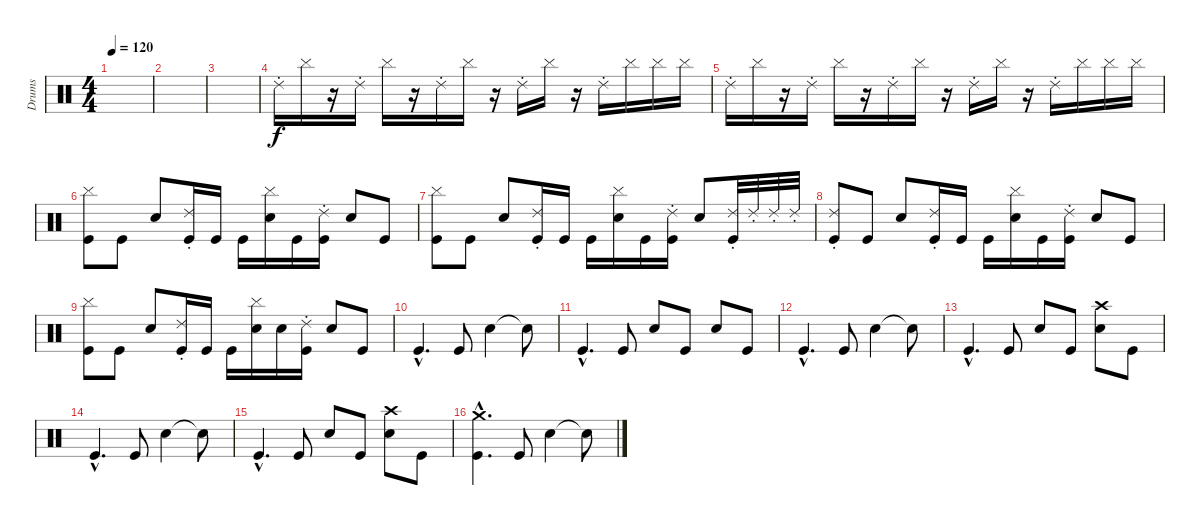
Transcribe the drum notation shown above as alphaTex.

\track ("Drums" "Drums") {instrument percussion}
\staff {score}
\articulation defaults
\ts (4 4)
\tempo 120
\clef neutral
\ks c
|
|
|
"Ride (choke) 2".16 "Cymbal (hit)".16 r.16 "Ride (choke) 2".16 "Cymbal (hit)".16 r.16 "Ride (choke) 2".16 "Cymbal (hit)".16 r.16 "Ride (choke) 2".16 "Cymbal (hit)".16 r.16 "Ride (choke) 2".16 "Cymbal (hit)".16 "Cymbal (hit)".16 "Cymbal (hit)".16 |
"Ride (choke) 2".16 "Cymbal (hit)".16 r.16 "Ride (choke) 2".16 "Cymbal (hit)".16 r.16 "Ride (choke) 2".16 "Cymbal (hit)".16 r.16 "Ride (choke) 2".16 "Cymbal (hit)".16 r.16 "Ride (choke) 2".16 "Cymbal (hit)".16 "Cymbal (hit)".16 "Cymbal (hit)".16 |
("Kick (hit)" "Cymbal (hit)").8 "Kick (hit)".8 "Electric Snare (hit)".8 ("Kick (hit)" "Ride (choke) 2").16 "Kick (hit)".16 "Kick (hit)".16 ("Electric Snare (hit)" "Cymbal (hit)").16 "Kick (hit)".16 ("Kick (hit)" "Ride (choke) 2").16 "Electric Snare (hit)".8 "Kick (hit)".8 |
("Kick (hit)" "Cymbal (hit)").8 "Kick (hit)".8 "Electric Snare (hit)".8 ("Kick (hit)" "Ride (choke) 2").16 "Kick (hit)".16 "Kick (hit)".16 ("Electric Snare (hit)" "Cymbal (hit)").16 "Kick (hit)".16 ("Kick (hit)" "Ride (choke) 2").16 "Electric Snare (hit)".8 ("Kick (hit)" "Ride (choke) 2").32 "Ride (choke) 2".32 "Ride (choke) 2".32 "Ride (choke) 2".32 |
("Kick (hit)" "Ride (choke) 2").8 "Kick (hit)".8 "Electric Snare (hit)".8 ("Kick (hit)" "Ride (choke) 2").16 "Kick (hit)".16 "Kick (hit)".16 ("Electric Snare (hit)" "Cymbal (hit)").16 "Kick (hit)".16 ("Kick (hit)" "Ride (choke) 2").16 "Electric Snare (hit)".8 "Kick (hit)".8 |
("Kick (hit)" "Cymbal (hit)").8 "Kick (hit)".8 "Electric Snare (hit)".8 ("Kick (hit)" "Ride (choke) 2").16 "Kick (hit)".16 "Kick (hit)".16 ("Electric Snare (hit)" "Cymbal (hit)").16 "Electric Snare (hit)".16 ("Kick (hit)" "Ride (choke) 2").16 "Electric Snare (hit)".8 "Kick (hit)".8 |
"Kick (hit)"{hac}.4{d} "Kick (hit)".8 "Electric Snare (hit)".4 "Snare (hit)"{t}.8 |
"Kick (hit)"{hac}.4{d} "Kick (hit)".8 "Electric Snare (hit)".8 "Kick (hit)".8 "Electric Snare (hit)".8 "Kick (hit)".8 |
"Kick (hit)"{hac}.4{d} "Kick (hit)".8 "Electric Snare (hit)".4 "Snare (hit)"{t}.8 |
"Kick (hit)"{hac}.4{d} "Kick (hit)".8 "Electric Snare (hit)".8 "Kick (hit)".8 ("Electric Snare (hit)" "Crash high (hit)").8 "Kick (hit)".8 |
"Kick (hit)"{hac}.4{d} "Kick (hit)".8 "Electric Snare (hit)".4 "Snare (hit)"{t}.8 |
"Kick (hit)"{hac}.4{d} "Kick (hit)".8 "Electric Snare (hit)".8 "Kick (hit)".8 ("Electric Snare (hit)" "Crash high (hit)").8 "Kick (hit)".8 |
("Kick (hit)"{hac} "Crash medium (hit)"{hac}).4{d} "Kick (hit)".8 "Electric Snare (hit)".4 "Snare (hit)"{t}.8
